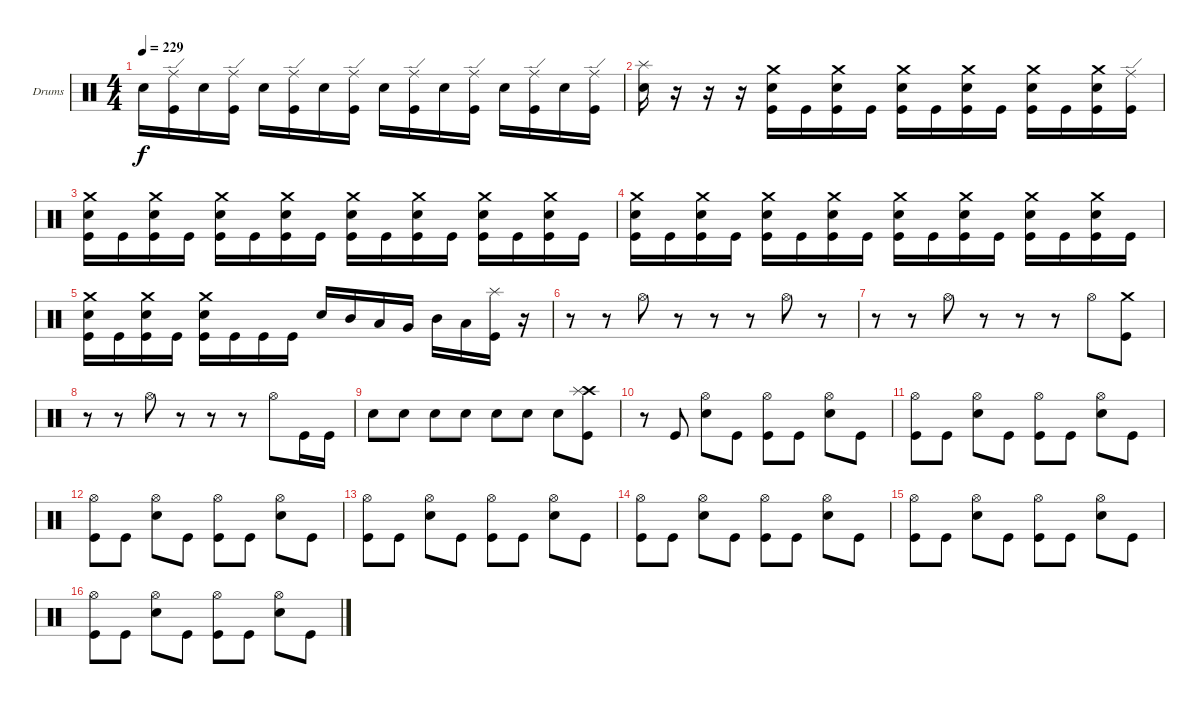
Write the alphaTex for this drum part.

\defaultSystemsLayout 4
\bracketExtendMode groupsimilarinstruments
\firstSystemTrackNameOrientation horizontal
\otherSystemsTrackNameOrientation horizontal
\track ("Drumkit" "Drums") {instrument percussion}
\staff {score}
\articulation defaults
\ts (4 4)
\tempo 229
\clef neutral
\ks c "Snare (hit) 2".16{dy f}
("Kick (hit)" "Ride (edge)").16 "Snare (hit) 2".16 ("Kick (hit)" "Ride (edge)").16 "Snare (hit) 2".16 ("Kick (hit)" "Ride (edge)").16 "Snare (hit) 2".16 ("Kick (hit)" "Ride (edge)").16 "Snare (hit) 2".16 ("Kick (hit)" "Ride (edge)").16 "Snare (hit) 2".16 ("Kick (hit)" "Ride (edge)").16 "Snare (hit) 2".16 ("Kick (hit)" "Ride (edge)").16 "Snare (hit) 2".16 ("Kick (hit)" "Ride (edge)").16 |
("Snare (hit) 2" "Splash (hit)").16 r.16 r.16 r.16 ("Snare (hit) 2" "Crash medium (hit)" "Kick (hit)").16 "Kick (hit)".16 ("Snare (hit) 2" "Crash medium (hit)" "Kick (hit)").16 "Kick (hit)".16 ("Snare (hit) 2" "Crash medium (hit)" "Kick (hit)").16 "Kick (hit)".16 ("Snare (hit) 2" "Crash medium (hit)" "Kick (hit)").16 "Kick (hit)".16 ("Snare (hit) 2" "Crash medium (hit)" "Kick (hit)").16 "Kick (hit)".16 ("Snare (hit) 2" "Crash medium (hit)" "Kick (hit)").16 ("Kick (hit)" "Ride (edge)").16 |
("Snare (hit) 2" "Crash medium (hit)" "Kick (hit)").16 "Kick (hit)".16 ("Snare (hit) 2" "Crash medium (hit)" "Kick (hit)").16 "Kick (hit)".16 ("Snare (hit) 2" "Crash medium (hit)" "Kick (hit)").16 "Kick (hit)".16 ("Snare (hit) 2" "Crash medium (hit)" "Kick (hit)").16 "Kick (hit)".16 ("Snare (hit) 2" "Crash medium (hit)" "Kick (hit)").16 "Kick (hit)".16 ("Snare (hit) 2" "Crash medium (hit)" "Kick (hit)").16 "Kick (hit)".16 ("Snare (hit) 2" "Crash medium (hit)" "Kick (hit)").16 "Kick (hit)".16 ("Snare (hit) 2" "Crash medium (hit)" "Kick (hit)").16 "Kick (hit)".16 |
("Snare (hit) 2" "Crash medium (hit)" "Kick (hit)").16 "Kick (hit)".16 ("Snare (hit) 2" "Crash medium (hit)" "Kick (hit)").16 "Kick (hit)".16 ("Snare (hit) 2" "Crash medium (hit)" "Kick (hit)").16 "Kick (hit)".16 ("Snare (hit) 2" "Crash medium (hit)" "Kick (hit)").16 "Kick (hit)".16 ("Snare (hit) 2" "Crash medium (hit)" "Kick (hit)").16 "Kick (hit)".16 ("Snare (hit) 2" "Crash medium (hit)" "Kick (hit)").16 "Kick (hit)".16 ("Snare (hit) 2" "Crash medium (hit)" "Kick (hit)").16 "Kick (hit)".16 ("Snare (hit) 2" "Crash medium (hit)" "Kick (hit)").16 "Kick (hit)".16 |
("Snare (hit) 2" "Crash medium (hit)" "Kick (hit)").16 "Kick (hit)".16 ("Snare (hit) 2" "Crash medium (hit)" "Kick (hit)").16 "Kick (hit)".16 ("Snare (hit) 2" "Crash medium (hit)" "Kick (hit)").16 "Kick (hit)".16 "Kick (hit)".16 "Kick (hit)".16 "Snare (hit) 2".16 "Mid Tom (hit)".16 "Low Tom (hit)".16 "Very Low Tom (hit)".16 "Mid Tom (hit)".16 "Low Tom (hit)".16 ("Kick (hit)" "Splash (hit)").16 r.16 |
r.8 r.8 "Hi-Hat (open)".8 r.8 r.8 r.8 "Hi-Hat (open)".8 r.8 |
r.8 r.8 "Hi-Hat (open)".8 r.8 r.8 r.8 "Hi-Hat (open)".8 ("Kick (hit)" "Crash medium (hit)").8 |
r.8 r.8 "Hi-Hat (open)".8 r.8 r.8 r.8 "Hi-Hat (open)".8 "Kick (hit)".16 "Kick (hit)".16 |
"Snare (hit) 2".8 "Snare (hit) 2".8 "Snare (hit) 2".8 "Snare (hit) 2".8 "Snare (hit) 2".8 "Snare (hit) 2".8 "Snare (hit) 2".8 ("Kick (hit)" "Crash high (hit)" "Splash (hit)").8 |
r.8 "Kick (hit)".8 ("Snare (hit) 2" "Hi-Hat (open)").8 "Kick (hit)".8 ("Kick (hit)" "Hi-Hat (open)").8 "Kick (hit)".8 ("Snare (hit) 2" "Hi-Hat (open)").8 "Kick (hit)".8 |
("Kick (hit)" "Hi-Hat (open)").8 "Kick (hit)".8 ("Snare (hit) 2" "Hi-Hat (open)").8 "Kick (hit)".8 ("Kick (hit)" "Hi-Hat (open)").8 "Kick (hit)".8 ("Snare (hit) 2" "Hi-Hat (open)").8 "Kick (hit)".8 |
("Kick (hit)" "Hi-Hat (open)").8 "Kick (hit)".8 ("Snare (hit) 2" "Hi-Hat (open)").8 "Kick (hit)".8 ("Kick (hit)" "Hi-Hat (open)").8 "Kick (hit)".8 ("Snare (hit) 2" "Hi-Hat (open)").8 "Kick (hit)".8 |
("Kick (hit)" "Hi-Hat (open)").8 "Kick (hit)".8 ("Snare (hit) 2" "Hi-Hat (open)").8 "Kick (hit)".8 ("Kick (hit)" "Hi-Hat (open)").8 "Kick (hit)".8 ("Snare (hit) 2" "Hi-Hat (open)").8 "Kick (hit)".8 |
("Kick (hit)" "Hi-Hat (open)").8 "Kick (hit)".8 ("Snare (hit) 2" "Hi-Hat (open)").8 "Kick (hit)".8 ("Kick (hit)" "Hi-Hat (open)").8 "Kick (hit)".8 ("Snare (hit) 2" "Hi-Hat (open)").8 "Kick (hit)".8 |
("Kick (hit)" "Hi-Hat (open)").8 "Kick (hit)".8 ("Snare (hit) 2" "Hi-Hat (open)").8 "Kick (hit)".8 ("Kick (hit)" "Hi-Hat (open)").8 "Kick (hit)".8 ("Snare (hit) 2" "Hi-Hat (open)").8 "Kick (hit)".8 |
("Kick (hit)" "Hi-Hat (open)").8 "Kick (hit)".8 ("Snare (hit) 2" "Hi-Hat (open)").8 "Kick (hit)".8 ("Kick (hit)" "Hi-Hat (open)").8 "Kick (hit)".8 ("Snare (hit) 2" "Hi-Hat (open)").8 "Kick (hit)".8
